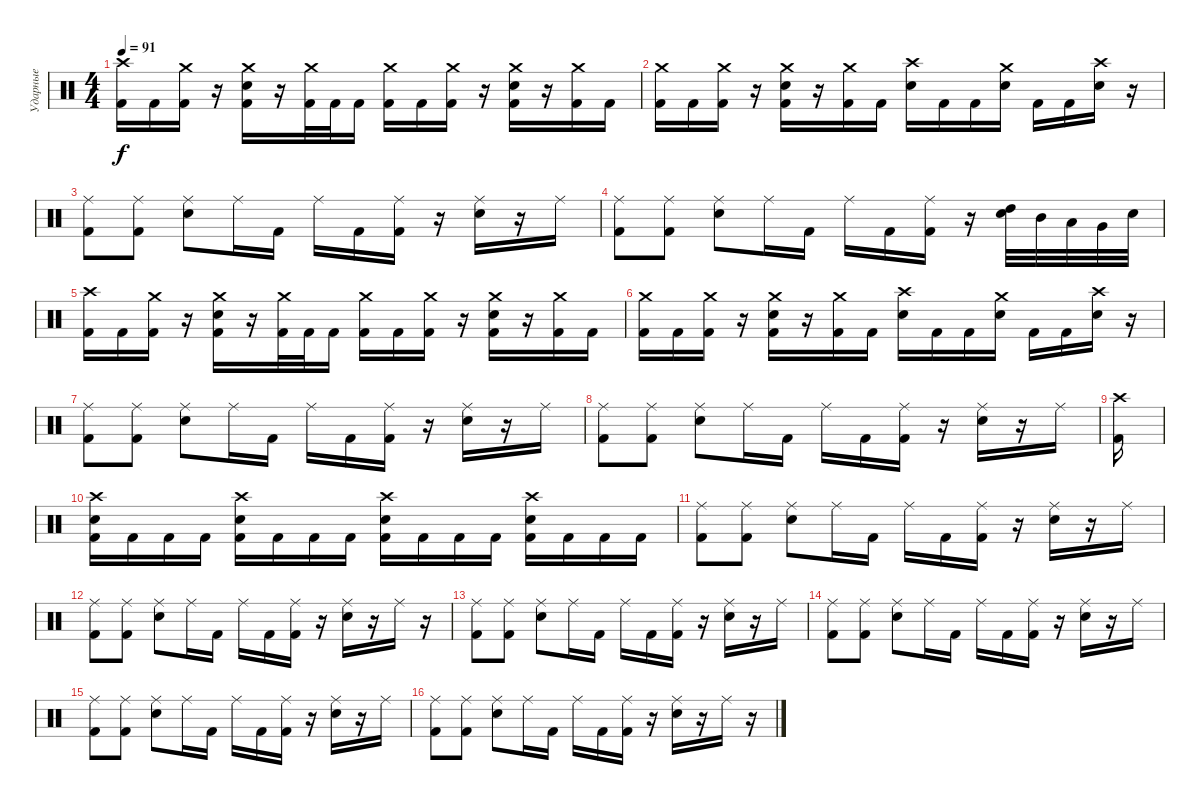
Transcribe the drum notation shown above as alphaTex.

\track ("Ударные" "Ударные") {instrument percussion}
\staff {score}
\articulation defaults
\ts (4 4)
\tempo 91
\clef neutral
\ks c
("Crash high (hit)" "Kick (hit) 2").16{dy f} "Kick (hit) 2".16 ("Crash medium (hit)" "Kick (hit) 2").16 r.16 ("Crash medium (hit)" "Electric Snare (hit)" "Kick (hit) 2").16 r.16 ("Crash medium (hit)" "Kick (hit) 2").32 "Kick (hit) 2".32 "Kick (hit) 2".16 ("Crash medium (hit)" "Kick (hit) 2").16 "Kick (hit) 2".16 ("Crash medium (hit)" "Kick (hit) 2").16 r.16 ("Crash medium (hit)" "Electric Snare (hit)" "Kick (hit) 2").16 r.16 ("Crash medium (hit)" "Kick (hit) 2").16 "Kick (hit) 2".16 |
("Crash medium (hit)" "Kick (hit) 2").16 "Kick (hit) 2".16 ("Crash medium (hit)" "Kick (hit) 2").16 r.16 ("Crash medium (hit)" "Electric Snare (hit)" "Kick (hit) 2").16 r.16 ("Crash medium (hit)" "Kick (hit) 2").16 "Kick (hit) 2".16 ("Crash high (hit)" "Electric Snare (hit)").16 "Kick (hit) 2".16 "Kick (hit) 2".16 ("Crash medium (hit)" "Electric Snare (hit)").16 "Kick (hit) 2".16 "Kick (hit) 2".16 ("Crash high (hit)" "Electric Snare (hit)").16 r.16 |
("Ride (middle)" "Kick (hit) 2").8 ("Ride (middle)" "Kick (hit) 2").8 ("Ride (middle)" "Electric Snare (hit)").8 "Ride (middle)".16 "Kick (hit) 2".16 "Ride (middle)".16 "Kick (hit) 2".16 ("Ride (middle)" "Kick (hit) 2").16 r.16 ("Ride (middle)" "Electric Snare (hit)").16 r.16 "Ride (middle)".16 |
("Ride (middle)" "Kick (hit) 2").8 ("Ride (middle)" "Kick (hit) 2").8 ("Ride (middle)" "Electric Snare (hit)").8 "Ride (middle)".16 "Kick (hit) 2".16 "Ride (middle)".16 "Kick (hit) 2".16 ("Ride (middle)" "Kick (hit) 2").16 r.16 ("High Tom (hit)" "Electric Snare (hit)").32 "Mid Tom (hit)".32 "Low Tom (hit)".32 "Very Low Tom (hit)".32 "Electric Snare (hit)".32 |
("Crash high (hit)" "Kick (hit) 2").16 "Kick (hit) 2".16 ("Crash medium (hit)" "Kick (hit) 2").16 r.16 ("Crash medium (hit)" "Electric Snare (hit)" "Kick (hit) 2").16 r.16 ("Crash medium (hit)" "Kick (hit) 2").32 "Kick (hit) 2".32 "Kick (hit) 2".16 ("Crash medium (hit)" "Kick (hit) 2").16 "Kick (hit) 2".16 ("Crash medium (hit)" "Kick (hit) 2").16 r.16 ("Crash medium (hit)" "Electric Snare (hit)" "Kick (hit) 2").16 r.16 ("Crash medium (hit)" "Kick (hit) 2").16 "Kick (hit) 2".16 |
("Crash medium (hit)" "Kick (hit) 2").16 "Kick (hit) 2".16 ("Crash medium (hit)" "Kick (hit) 2").16 r.16 ("Crash medium (hit)" "Electric Snare (hit)" "Kick (hit) 2").16 r.16 ("Crash medium (hit)" "Kick (hit) 2").16 "Kick (hit) 2".16 ("Crash high (hit)" "Electric Snare (hit)").16 "Kick (hit) 2".16 "Kick (hit) 2".16 ("Crash medium (hit)" "Electric Snare (hit)").16 "Kick (hit) 2".16 "Kick (hit) 2".16 ("Crash high (hit)" "Electric Snare (hit)").16 r.16 |
("Ride (middle)" "Kick (hit) 2").8 ("Ride (middle)" "Kick (hit) 2").8 ("Ride (middle)" "Electric Snare (hit)").8 "Ride (middle)".16 "Kick (hit) 2".16 "Ride (middle)".16 "Kick (hit) 2".16 ("Ride (middle)" "Kick (hit) 2").16 r.16 ("Ride (middle)" "Electric Snare (hit)").16 r.16 "Ride (middle)".16 |
("Ride (middle)" "Kick (hit) 2").8 ("Ride (middle)" "Kick (hit) 2").8 ("Ride (middle)" "Electric Snare (hit)").8 "Ride (middle)".16 "Kick (hit) 2".16 "Ride (middle)".16 "Kick (hit) 2".16 ("Ride (middle)" "Kick (hit) 2").16 r.16 ("Ride (middle)" "Electric Snare (hit)").16 r.16 "Ride (middle)".16 |
("Crash high (hit)" "Kick (hit) 2").16 |
("Crash high (hit)" "Electric Snare (hit)" "Kick (hit) 2").16 "Kick (hit) 2".16 "Kick (hit) 2".16 "Kick (hit) 2".16 ("Crash high (hit)" "Electric Snare (hit)" "Kick (hit) 2").16 "Kick (hit) 2".16 "Kick (hit) 2".16 "Kick (hit) 2".16 ("Crash high (hit)" "Electric Snare (hit)" "Kick (hit) 2").16 "Kick (hit) 2".16 "Kick (hit) 2".16 "Kick (hit) 2".16 ("Crash high (hit)" "Electric Snare (hit)" "Kick (hit) 2").16 "Kick (hit) 2".16 "Kick (hit) 2".16 "Kick (hit) 2".16 |
("Ride (middle)" "Kick (hit) 2").8 ("Ride (middle)" "Kick (hit) 2").8 ("Ride (middle)" "Electric Snare (hit)").8 "Ride (middle)".16 "Kick (hit) 2".16 "Ride (middle)".16 "Kick (hit) 2".16 ("Ride (middle)" "Kick (hit) 2").16 r.16 ("Ride (middle)" "Electric Snare (hit)").16 r.16 "Ride (middle)".16 |
("Ride (middle)" "Kick (hit) 2").8 ("Ride (middle)" "Kick (hit) 2").8 ("Ride (middle)" "Electric Snare (hit)").8 "Ride (middle)".16 "Kick (hit) 2".16 "Ride (middle)".16 "Kick (hit) 2".16 ("Ride (middle)" "Kick (hit) 2").16 r.16 ("Ride (middle)" "Electric Snare (hit)").16 r.16 "Ride (middle)".16 r.16 |
("Ride (middle)" "Kick (hit) 2").8 ("Ride (middle)" "Kick (hit) 2").8 ("Ride (middle)" "Electric Snare (hit)").8 "Ride (middle)".16 "Kick (hit) 2".16 "Ride (middle)".16 "Kick (hit) 2".16 ("Ride (middle)" "Kick (hit) 2").16 r.16 ("Ride (middle)" "Electric Snare (hit)").16 r.16 "Ride (middle)".16 |
("Ride (middle)" "Kick (hit) 2").8 ("Ride (middle)" "Kick (hit) 2").8 ("Ride (middle)" "Electric Snare (hit)").8 "Ride (middle)".16 "Kick (hit) 2".16 "Ride (middle)".16 "Kick (hit) 2".16 ("Ride (middle)" "Kick (hit) 2").16 r.16 ("Ride (middle)" "Electric Snare (hit)").16 r.16 "Ride (middle)".16 |
("Ride (middle)" "Kick (hit) 2").8 ("Ride (middle)" "Kick (hit) 2").8 ("Ride (middle)" "Electric Snare (hit)").8 "Ride (middle)".16 "Kick (hit) 2".16 "Ride (middle)".16 "Kick (hit) 2".16 ("Ride (middle)" "Kick (hit) 2").16 r.16 ("Ride (middle)" "Electric Snare (hit)").16 r.16 "Ride (middle)".16 |
("Ride (middle)" "Kick (hit) 2").8 ("Ride (middle)" "Kick (hit) 2").8 ("Ride (middle)" "Electric Snare (hit)").8 "Ride (middle)".16 "Kick (hit) 2".16 "Ride (middle)".16 "Kick (hit) 2".16 ("Ride (middle)" "Kick (hit) 2").16 r.16 ("Ride (middle)" "Electric Snare (hit)").16 r.16 "Ride (middle)".16 r.16
